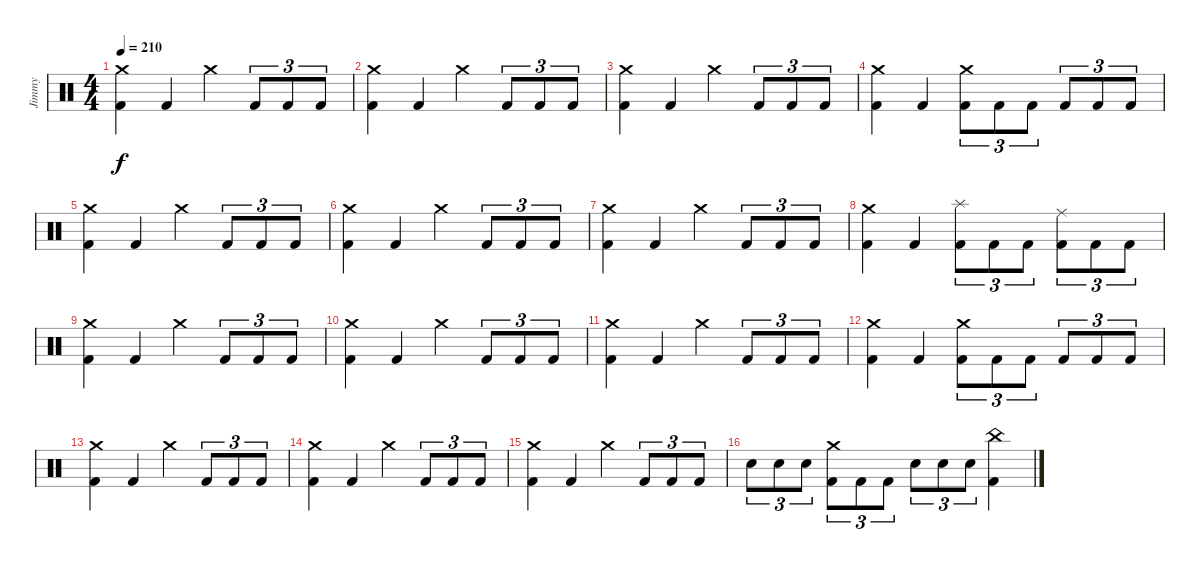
\track ("Jimmy" "Jimmy") {instrument percussion}
\staff {score}
\articulation defaults
\ts (4 4)
\tempo 210
\clef neutral
\ks c
("Crash medium (hit)" "Kick (hit) 2").4{dy f} "Kick (hit) 2".4 "Crash medium (hit)".4 "Kick (hit) 2".8{tu (3 2)} "Kick (hit) 2".8{tu (3 2)} "Kick (hit) 2".8{tu (3 2)} |
("Crash medium (hit)" "Kick (hit) 2").4 "Kick (hit) 2".4 "Crash medium (hit)".4 "Kick (hit) 2".8{tu (3 2)} "Kick (hit) 2".8{tu (3 2)} "Kick (hit) 2".8{tu (3 2)} |
("Crash medium (hit)" "Kick (hit) 2").4 "Kick (hit) 2".4 "Crash medium (hit)".4 "Kick (hit) 2".8{tu (3 2)} "Kick (hit) 2".8{tu (3 2)} "Kick (hit) 2".8{tu (3 2)} |
("Crash medium (hit)" "Kick (hit) 2").4 "Kick (hit) 2".4 ("Crash medium (hit)" "Kick (hit) 2").8{tu (3 2)} "Kick (hit) 2".8{tu (3 2)} "Kick (hit) 2".8{tu (3 2)} "Kick (hit) 2".8{tu (3 2)} "Kick (hit) 2".8{tu (3 2)} "Kick (hit) 2".8{tu (3 2)} |
("Crash medium (hit)" "Kick (hit) 2").4 "Kick (hit) 2".4 "Crash medium (hit)".4 "Kick (hit) 2".8{tu (3 2)} "Kick (hit) 2".8{tu (3 2)} "Kick (hit) 2".8{tu (3 2)} |
("Crash medium (hit)" "Kick (hit) 2").4 "Kick (hit) 2".4 "Crash medium (hit)".4 "Kick (hit) 2".8{tu (3 2)} "Kick (hit) 2".8{tu (3 2)} "Kick (hit) 2".8{tu (3 2)} |
("Crash medium (hit)" "Kick (hit) 2").4 "Kick (hit) 2".4 "Crash medium (hit)".4 "Kick (hit) 2".8{tu (3 2)} "Kick (hit) 2".8{tu (3 2)} "Kick (hit) 2".8{tu (3 2)} |
("Crash medium (hit)" "Kick (hit) 2").4 "Kick (hit) 2".4 ("Splash (hit)" "Kick (hit) 2").8{tu (3 2)} "Kick (hit) 2".8{tu (3 2)} "Kick (hit) 2".8{tu (3 2)} ("Ride (middle)" "Kick (hit) 2").8{tu (3 2)} "Kick (hit) 2".8{tu (3 2)} "Kick (hit) 2".8{tu (3 2)} |
("Crash medium (hit)" "Kick (hit) 2").4 "Kick (hit) 2".4 "Crash medium (hit)".4 "Kick (hit) 2".8{tu (3 2)} "Kick (hit) 2".8{tu (3 2)} "Kick (hit) 2".8{tu (3 2)} |
("Crash medium (hit)" "Kick (hit) 2").4 "Kick (hit) 2".4 "Crash medium (hit)".4 "Kick (hit) 2".8{tu (3 2)} "Kick (hit) 2".8{tu (3 2)} "Kick (hit) 2".8{tu (3 2)} |
("Crash medium (hit)" "Kick (hit) 2").4 "Kick (hit) 2".4 "Crash medium (hit)".4 "Kick (hit) 2".8{tu (3 2)} "Kick (hit) 2".8{tu (3 2)} "Kick (hit) 2".8{tu (3 2)} |
("Crash medium (hit)" "Kick (hit) 2").4 "Kick (hit) 2".4 ("Crash medium (hit)" "Kick (hit) 2").8{tu (3 2)} "Kick (hit) 2".8{tu (3 2)} "Kick (hit) 2".8{tu (3 2)} "Kick (hit) 2".8{tu (3 2)} "Kick (hit) 2".8{tu (3 2)} "Kick (hit) 2".8{tu (3 2)} |
("Crash medium (hit)" "Kick (hit) 2").4 "Kick (hit) 2".4 "Crash medium (hit)".4 "Kick (hit) 2".8{tu (3 2)} "Kick (hit) 2".8{tu (3 2)} "Kick (hit) 2".8{tu (3 2)} |
("Crash medium (hit)" "Kick (hit) 2").4 "Kick (hit) 2".4 "Crash medium (hit)".4 "Kick (hit) 2".8{tu (3 2)} "Kick (hit) 2".8{tu (3 2)} "Kick (hit) 2".8{tu (3 2)} |
("Crash medium (hit)" "Kick (hit) 2").4 "Kick (hit) 2".4 "Crash medium (hit)".4 "Kick (hit) 2".8{tu (3 2)} "Kick (hit) 2".8{tu (3 2)} "Kick (hit) 2".8{tu (3 2)} |
"Electric Snare (hit)".8{tu (3 2)} "Electric Snare (hit)".8{tu (3 2)} "Electric Snare (hit)".8{tu (3 2)} ("Crash medium (hit)" "Kick (hit) 2").8{tu (3 2)} "Kick (hit) 2".8{tu (3 2)} "Kick (hit) 2".8{tu (3 2)} "Electric Snare (hit)".8{tu (3 2)} "Electric Snare (hit)".8{tu (3 2)} "Electric Snare (hit)".8{tu (3 2)} ("China (hit)" "Kick (hit) 2").4
